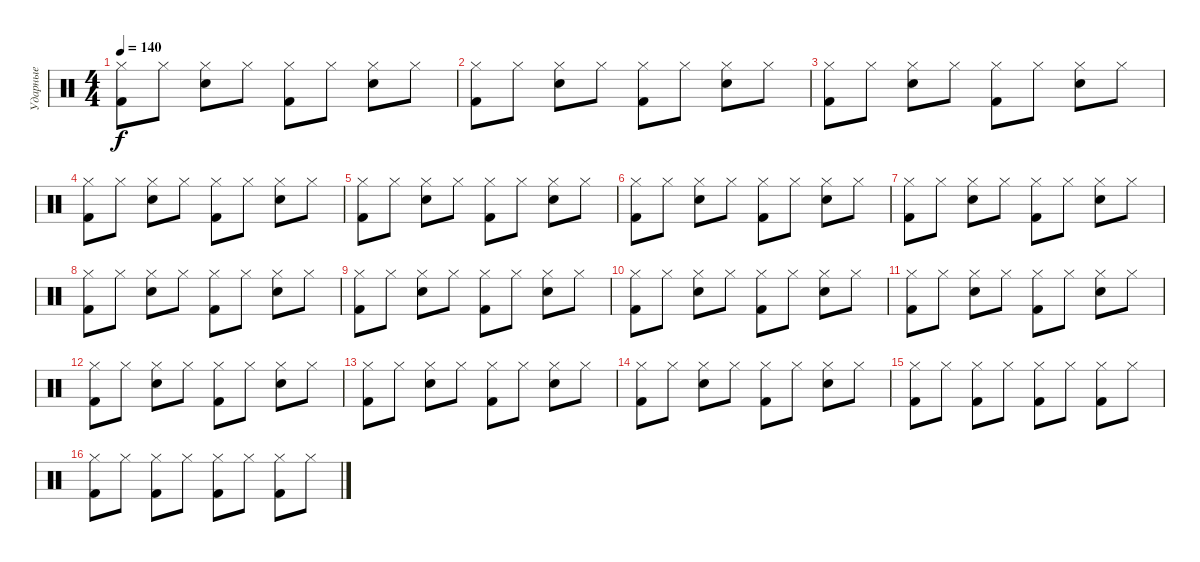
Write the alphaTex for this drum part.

\track ("Ударные" "Ударные") {instrument percussion}
\staff {score}
\articulation defaults
\ts (4 4)
\tempo 140
\clef neutral
\ks c
("Hi-Hat (closed)" "Kick (hit) 2").8{dy f} "Hi-Hat (closed)".8 ("Hi-Hat (closed)" "Snare (hit) 2").8 "Hi-Hat (closed)".8 ("Hi-Hat (closed)" "Kick (hit) 2").8 "Hi-Hat (closed)".8 ("Hi-Hat (closed)" "Snare (hit) 2").8 "Hi-Hat (closed)".8 |
("Hi-Hat (closed)" "Kick (hit) 2").8 "Hi-Hat (closed)".8 ("Hi-Hat (closed)" "Snare (hit) 2").8 "Hi-Hat (closed)".8 ("Hi-Hat (closed)" "Kick (hit) 2").8 "Hi-Hat (closed)".8 ("Hi-Hat (closed)" "Snare (hit) 2").8 "Hi-Hat (closed)".8 |
("Hi-Hat (closed)" "Kick (hit) 2").8 "Hi-Hat (closed)".8 ("Hi-Hat (closed)" "Snare (hit) 2").8 "Hi-Hat (closed)".8 ("Hi-Hat (closed)" "Kick (hit) 2").8 "Hi-Hat (closed)".8 ("Hi-Hat (closed)" "Snare (hit) 2").8 "Hi-Hat (closed)".8 |
("Hi-Hat (closed)" "Kick (hit) 2").8 "Hi-Hat (closed)".8 ("Hi-Hat (closed)" "Snare (hit) 2").8 "Hi-Hat (closed)".8 ("Hi-Hat (closed)" "Kick (hit) 2").8 "Hi-Hat (closed)".8 ("Hi-Hat (closed)" "Snare (hit) 2").8 "Hi-Hat (closed)".8 |
("Hi-Hat (closed)" "Kick (hit) 2").8 "Hi-Hat (closed)".8 ("Hi-Hat (closed)" "Snare (hit) 2").8 "Hi-Hat (closed)".8 ("Hi-Hat (closed)" "Kick (hit) 2").8 "Hi-Hat (closed)".8 ("Hi-Hat (closed)" "Snare (hit) 2").8 "Hi-Hat (closed)".8 |
("Hi-Hat (closed)" "Kick (hit) 2").8 "Hi-Hat (closed)".8 ("Hi-Hat (closed)" "Snare (hit) 2").8 "Hi-Hat (closed)".8 ("Hi-Hat (closed)" "Kick (hit) 2").8 "Hi-Hat (closed)".8 ("Hi-Hat (closed)" "Snare (hit) 2").8 "Hi-Hat (closed)".8 |
("Hi-Hat (closed)" "Kick (hit) 2").8 "Hi-Hat (closed)".8 ("Hi-Hat (closed)" "Snare (hit) 2").8 "Hi-Hat (closed)".8 ("Hi-Hat (closed)" "Kick (hit) 2").8 "Hi-Hat (closed)".8 ("Hi-Hat (closed)" "Snare (hit) 2").8 "Hi-Hat (closed)".8 |
("Hi-Hat (closed)" "Kick (hit) 2").8 "Hi-Hat (closed)".8 ("Hi-Hat (closed)" "Snare (hit) 2").8 "Hi-Hat (closed)".8 ("Hi-Hat (closed)" "Kick (hit) 2").8 "Hi-Hat (closed)".8 ("Hi-Hat (closed)" "Snare (hit) 2").8 "Hi-Hat (closed)".8 |
("Hi-Hat (closed)" "Kick (hit) 2").8 "Hi-Hat (closed)".8 ("Hi-Hat (closed)" "Snare (hit) 2").8 "Hi-Hat (closed)".8 ("Hi-Hat (closed)" "Kick (hit) 2").8 "Hi-Hat (closed)".8 ("Hi-Hat (closed)" "Snare (hit) 2").8 "Hi-Hat (closed)".8 |
("Hi-Hat (closed)" "Kick (hit) 2").8 "Hi-Hat (closed)".8 ("Hi-Hat (closed)" "Snare (hit) 2").8 "Hi-Hat (closed)".8 ("Hi-Hat (closed)" "Kick (hit) 2").8 "Hi-Hat (closed)".8 ("Hi-Hat (closed)" "Snare (hit) 2").8 "Hi-Hat (closed)".8 |
("Hi-Hat (closed)" "Kick (hit) 2").8 "Hi-Hat (closed)".8 ("Hi-Hat (closed)" "Snare (hit) 2").8 "Hi-Hat (closed)".8 ("Hi-Hat (closed)" "Kick (hit) 2").8 "Hi-Hat (closed)".8 ("Hi-Hat (closed)" "Snare (hit) 2").8 "Hi-Hat (closed)".8 |
("Hi-Hat (closed)" "Kick (hit) 2").8 "Hi-Hat (closed)".8 ("Hi-Hat (closed)" "Snare (hit) 2").8 "Hi-Hat (closed)".8 ("Hi-Hat (closed)" "Kick (hit) 2").8 "Hi-Hat (closed)".8 ("Hi-Hat (closed)" "Snare (hit) 2").8 "Hi-Hat (closed)".8 |
("Hi-Hat (closed)" "Kick (hit) 2").8 "Hi-Hat (closed)".8 ("Hi-Hat (closed)" "Snare (hit) 2").8 "Hi-Hat (closed)".8 ("Hi-Hat (closed)" "Kick (hit) 2").8 "Hi-Hat (closed)".8 ("Hi-Hat (closed)" "Snare (hit) 2").8 "Hi-Hat (closed)".8 |
("Hi-Hat (closed)" "Kick (hit) 2").8 "Hi-Hat (closed)".8 ("Hi-Hat (closed)" "Snare (hit) 2").8 "Hi-Hat (closed)".8 ("Hi-Hat (closed)" "Kick (hit) 2").8 "Hi-Hat (closed)".8 ("Hi-Hat (closed)" "Snare (hit) 2").8 "Hi-Hat (closed)".8 |
("Hi-Hat (closed)" "Kick (hit) 2").8 "Hi-Hat (closed)".8 ("Hi-Hat (closed)" "Kick (hit) 2").8 "Hi-Hat (closed)".8 ("Hi-Hat (closed)" "Kick (hit) 2").8 "Hi-Hat (closed)".8 ("Hi-Hat (closed)" "Kick (hit) 2").8 "Hi-Hat (closed)".8 |
("Hi-Hat (closed)" "Kick (hit) 2").8 "Hi-Hat (closed)".8 ("Hi-Hat (closed)" "Kick (hit) 2").8 "Hi-Hat (closed)".8 ("Hi-Hat (closed)" "Kick (hit) 2").8 "Hi-Hat (closed)".8 ("Hi-Hat (closed)" "Kick (hit) 2").8 "Hi-Hat (closed)".8
